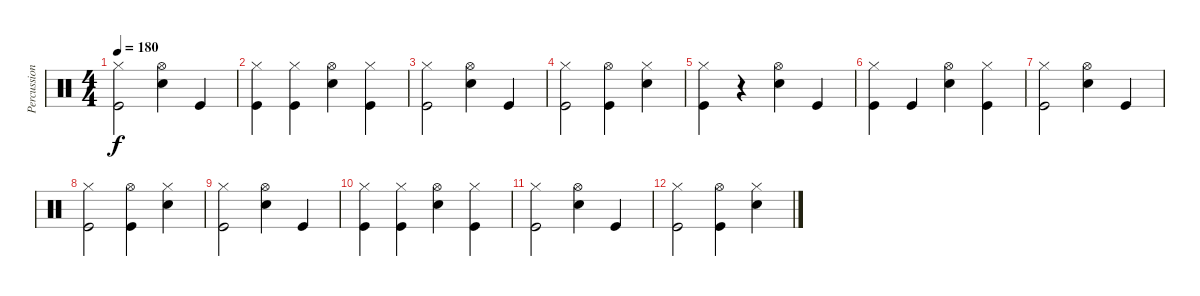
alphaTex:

\track ("Percussion" "Percussion") {instrument percussion}
\staff {score}
\articulation defaults
\ts (4 4)
\tempo 180
\clef neutral
\ks c
("Hi-Hat (closed)" "Kick (hit)").2{dy f} ("Hi-Hat (open)" "Snare (hit) 2").4 "Kick (hit)".4 |
("Hi-Hat (closed)" "Kick (hit)").4 ("Hi-Hat (closed)" "Kick (hit)").4 ("Hi-Hat (open)" "Snare (hit) 2").4 ("Hi-Hat (closed)" "Kick (hit)").4 |
("Hi-Hat (closed)" "Kick (hit)").2 ("Hi-Hat (open)" "Snare (hit) 2").4 "Kick (hit)".4 |
("Hi-Hat (closed)" "Kick (hit)").2 ("Hi-Hat (open)" "Kick (hit)").4 ("Hi-Hat (closed)" "Snare (hit) 2").4 |
("Hi-Hat (closed)" "Kick (hit)").4 r.4 ("Hi-Hat (open)" "Snare (hit) 2").4 "Kick (hit)".4 |
("Hi-Hat (closed)" "Kick (hit)").4 "Kick (hit)".4 ("Hi-Hat (open)" "Snare (hit) 2").4 ("Hi-Hat (closed)" "Kick (hit)").4 |
("Hi-Hat (closed)" "Kick (hit)").2 ("Hi-Hat (open)" "Snare (hit) 2").4 "Kick (hit)".4 |
("Hi-Hat (closed)" "Kick (hit)").2 ("Hi-Hat (open)" "Kick (hit)").4 ("Hi-Hat (closed)" "Snare (hit) 2").4 |
("Hi-Hat (closed)" "Kick (hit)").2 ("Hi-Hat (open)" "Snare (hit) 2").4 "Kick (hit)".4 |
("Hi-Hat (closed)" "Kick (hit)").4 ("Hi-Hat (closed)" "Kick (hit)").4 ("Hi-Hat (open)" "Snare (hit) 2").4 ("Hi-Hat (closed)" "Kick (hit)").4 |
("Hi-Hat (closed)" "Kick (hit)").2 ("Hi-Hat (open)" "Snare (hit) 2").4 "Kick (hit)".4 |
("Hi-Hat (closed)" "Kick (hit)").2 ("Hi-Hat (open)" "Kick (hit)").4 ("Hi-Hat (closed)" "Snare (hit) 2").4
